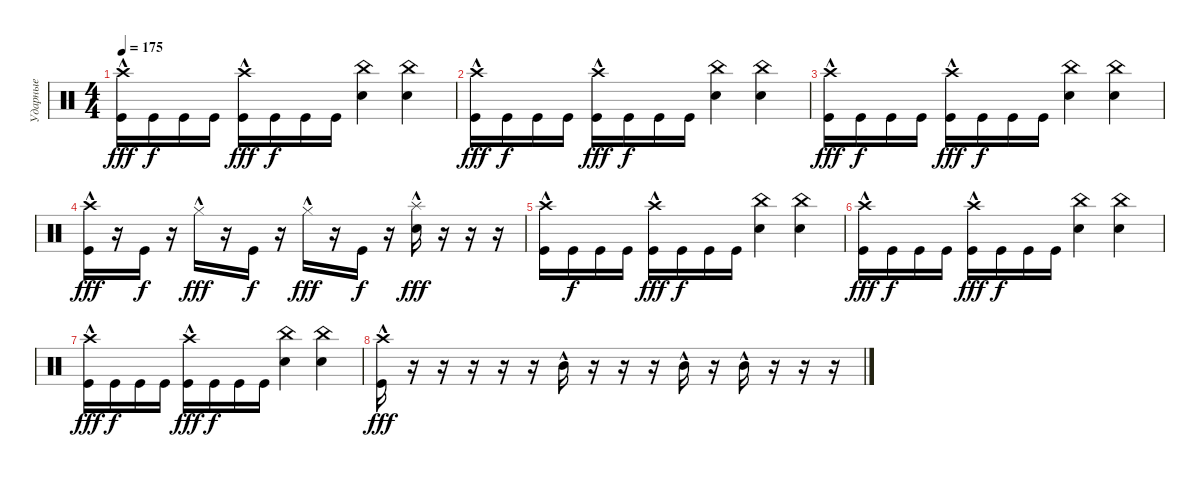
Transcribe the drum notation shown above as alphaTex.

\track ("Ударные" "Ударные") {instrument percussion}
\staff {score}
\articulation defaults
\ts (4 4)
\tempo 175
\clef neutral
\ks c
("Crash high (hit)"{hac} "Kick (hit)").16{dy fff} "Kick (hit)".16{dy f} "Kick (hit)".16 "Kick (hit)".16 ("Crash high (hit)"{hac} "Kick (hit)").16{dy fff} "Kick (hit)".16{dy f} "Kick (hit)".16 "Kick (hit)".16 ("China (hit)" "Electric Snare (hit)").4 ("China (hit)" "Electric Snare (hit)").4 |
("Crash high (hit)"{hac} "Kick (hit)").16{dy fff} "Kick (hit)".16{dy f} "Kick (hit)".16 "Kick (hit)".16 ("Crash high (hit)"{hac} "Kick (hit)").16{dy fff} "Kick (hit)".16{dy f} "Kick (hit)".16 "Kick (hit)".16 ("China (hit)" "Electric Snare (hit)").4 ("China (hit)" "Electric Snare (hit)").4 |
("Crash high (hit)"{hac} "Kick (hit)").16{dy fff} "Kick (hit)".16{dy f} "Kick (hit)".16 "Kick (hit)".16 ("Crash high (hit)"{hac} "Kick (hit)").16{dy fff} "Kick (hit)".16{dy f} "Kick (hit)".16 "Kick (hit)".16 ("China (hit)" "Electric Snare (hit)").4 ("China (hit)" "Electric Snare (hit)").4 |
("Crash high (hit)"{hac} "Kick (hit)").16{dy fff} r.16 "Kick (hit)".16{dy f} r.16 "Hi-Hat (closed)"{hac}.16{dy fff} r.16 "Kick (hit)".16{dy f} r.16 "Hi-Hat (closed)"{hac}.16{dy fff} r.16 "Kick (hit)".16{dy f} r.16 ("Splash (hit)"{hac} "Electric Snare (hit)").16{dy fff} r.16 r.16 r.16 |
("Crash high (hit)"{hac} "Kick (hit)").16 "Kick (hit)".16{dy f} "Kick (hit)".16 "Kick (hit)".16 ("Crash high (hit)"{hac} "Kick (hit)").16{dy fff} "Kick (hit)".16{dy f} "Kick (hit)".16 "Kick (hit)".16 ("China (hit)" "Electric Snare (hit)").4 ("China (hit)" "Electric Snare (hit)").4 |
("Crash high (hit)"{hac} "Kick (hit)").16{dy fff} "Kick (hit)".16{dy f} "Kick (hit)".16 "Kick (hit)".16 ("Crash high (hit)"{hac} "Kick (hit)").16{dy fff} "Kick (hit)".16{dy f} "Kick (hit)".16 "Kick (hit)".16 ("China (hit)" "Electric Snare (hit)").4 ("China (hit)" "Electric Snare (hit)").4 |
("Crash high (hit)"{hac} "Kick (hit)").16{dy fff} "Kick (hit)".16{dy f} "Kick (hit)".16 "Kick (hit)".16 ("Crash high (hit)"{hac} "Kick (hit)").16{dy fff} "Kick (hit)".16{dy f} "Kick (hit)".16 "Kick (hit)".16 ("China (hit)" "Electric Snare (hit)").4 ("China (hit)" "Electric Snare (hit)").4 |
("Crash high (hit)"{hac} "Kick (hit)").16{dy fff} r.16 r.16 r.16 r.16 r.16 "Mid Tom (hit)"{hac}.16 r.16 r.16 r.16 "Mid Tom (hit)"{hac}.16 r.16 "Mid Tom (hit)"{hac}.16 r.16 r.16 r.16
